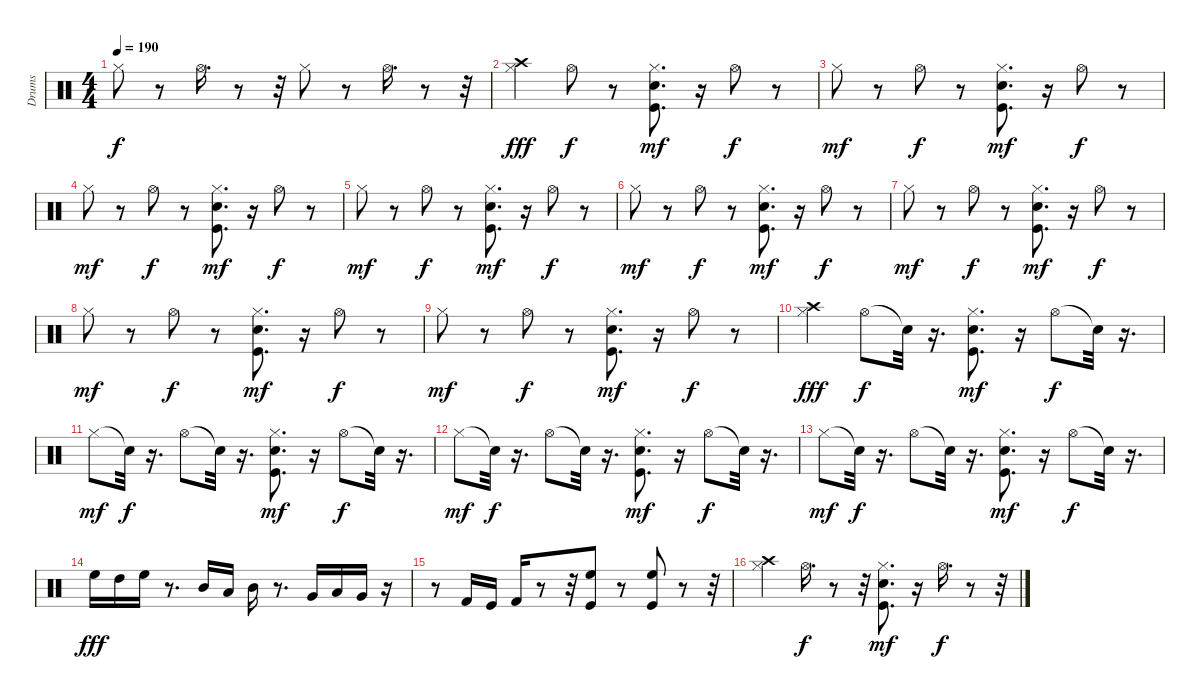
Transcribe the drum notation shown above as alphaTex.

\track ("Drums" "Drums") {instrument percussion}
\staff {score}
\articulation defaults
\ts (4 4)
\tempo 190
\clef neutral
\ks c "Hi-Hat (closed)".8{dy f}
r.8 "Hi-Hat (open)".16{d} r.8 r.32 "Hi-Hat (closed)".8 r.8 "Hi-Hat (open)".16{d} r.8 r.32 |
("Crash high (hit)" "Hi-Hat (closed)").4{dy fff} "Hi-Hat (open)".8{dy f} r.8 ("Kick (hit)" "Snare (hit) 2" "Hi-Hat (closed)").8{d dy mf} r.16 "Hi-Hat (open)".8{dy f} r.8 |
"Hi-Hat (closed)".8{dy mf} r.8 "Hi-Hat (open)".8{dy f} r.8 ("Kick (hit)" "Snare (hit) 2" "Hi-Hat (closed)").8{d dy mf} r.16 "Hi-Hat (open)".8{dy f} r.8 |
"Hi-Hat (closed)".8{dy mf} r.8 "Hi-Hat (open)".8{dy f} r.8 ("Kick (hit)" "Snare (hit) 2" "Hi-Hat (closed)").8{d dy mf} r.16 "Hi-Hat (open)".8{dy f} r.8 |
"Hi-Hat (closed)".8{dy mf} r.8 "Hi-Hat (open)".8{dy f} r.8 ("Kick (hit)" "Snare (hit) 2" "Hi-Hat (closed)").8{d dy mf} r.16 "Hi-Hat (open)".8{dy f} r.8 |
"Hi-Hat (closed)".8{dy mf} r.8 "Hi-Hat (open)".8{dy f} r.8 ("Kick (hit)" "Snare (hit) 2" "Hi-Hat (closed)").8{d dy mf} r.16 "Hi-Hat (open)".8{dy f} r.8 |
"Hi-Hat (closed)".8{dy mf} r.8 "Hi-Hat (open)".8{dy f} r.8 ("Kick (hit)" "Snare (hit) 2" "Hi-Hat (closed)").8{d dy mf} r.16 "Hi-Hat (open)".8{dy f} r.8 |
"Hi-Hat (closed)".8{dy mf} r.8 "Hi-Hat (open)".8{dy f} r.8 ("Kick (hit)" "Snare (hit) 2" "Hi-Hat (closed)").8{d dy mf} r.16 "Hi-Hat (open)".8{dy f} r.8 |
"Hi-Hat (closed)".8{dy mf} r.8 "Hi-Hat (open)".8{dy f} r.8 ("Kick (hit)" "Snare (hit) 2" "Hi-Hat (closed)").8{d dy mf} r.16 "Hi-Hat (open)".8{dy f} r.8 |
("Crash high (hit)" "Hi-Hat (closed)").4{dy fff} "Hi-Hat (open)".8{dy f} "Snare (hit)"{t}.32 r.16{d} ("Kick (hit)" "Snare (hit) 2" "Hi-Hat (closed)").8{d dy mf} r.16 "Hi-Hat (open)".8{dy f} "Snare (hit)"{t}.32 r.16{d} |
"Hi-Hat (closed)".8{dy mf} "Snare (hit)"{t}.32{dy f} r.16{d} "Hi-Hat (open)".8 "Snare (hit)"{t}.32 r.16{d} ("Kick (hit)" "Snare (hit) 2" "Hi-Hat (closed)").8{d dy mf} r.16 "Hi-Hat (open)".8{dy f} "Snare (hit)"{t}.32 r.16{d} |
"Hi-Hat (closed)".8{dy mf} "Snare (hit)"{t}.32{dy f} r.16{d} "Hi-Hat (open)".8 "Snare (hit)"{t}.32 r.16{d} ("Kick (hit)" "Snare (hit) 2" "Hi-Hat (closed)").8{d dy mf} r.16 "Hi-Hat (open)".8{dy f} "Snare (hit)"{t}.32 r.16{d} |
"Hi-Hat (closed)".8{dy mf} "Snare (hit)"{t}.32{dy f} r.16{d} "Hi-Hat (open)".8 "Snare (hit)"{t}.32 r.16{d} ("Kick (hit)" "Snare (hit) 2" "Hi-Hat (closed)").8{d dy mf} r.16 "Hi-Hat (open)".8{dy f} "Snare (hit)"{t}.32 r.16{d} |
"High Floor Tom (hit)".16{dy fff} "High Tom (hit)".16 "High Floor Tom (hit)".16 r.8{d} "Mid Tom (hit)".16 "Low Tom (hit)".16 "Mid Tom (hit)".16 r.8{d} "Very Low Tom (hit)".16 "Low Floor Tom (hit)".16 "Very Low Tom (hit)".16 r.16 |
r.8 "Kick (hit) 2".16 "Kick (hit)".16 "Kick (hit) 2".16 r.8 r.32 ("Kick (hit)" "High Floor Tom (hit)").8 r.8 ("Kick (hit)" "High Floor Tom (hit)").8 r.8 r.32 |
("Crash high (hit)" "Hi-Hat (closed)").4 "Hi-Hat (open)".16{d dy f} r.8 r.32 ("Kick (hit)" "Snare (hit) 2" "Hi-Hat (closed)").8{d dy mf} r.16 "Hi-Hat (open)".16{d dy f} r.8 r.32
